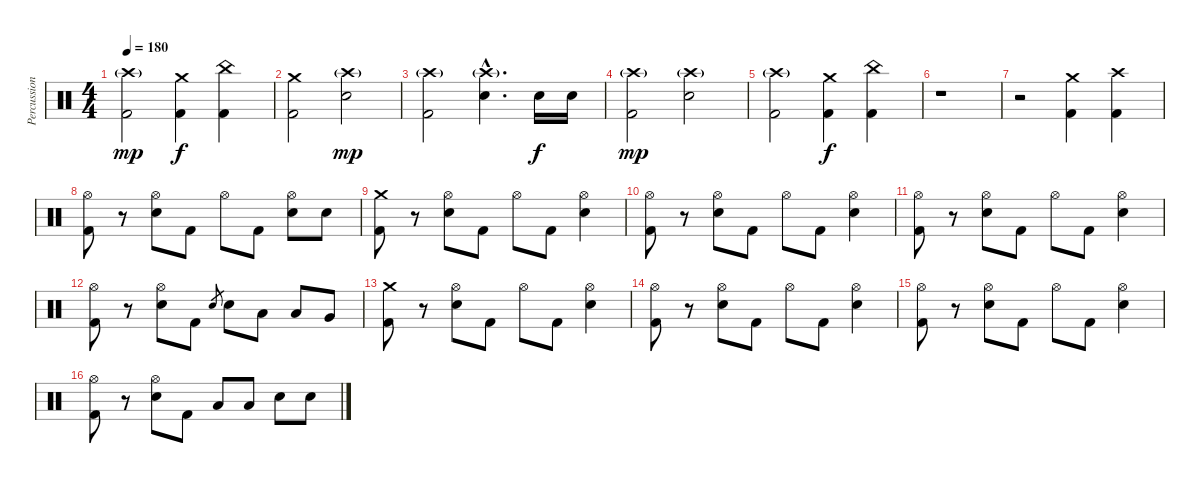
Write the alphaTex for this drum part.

\track ("Percussioni" "Percussion") {instrument percussion}
\staff {score}
\articulation defaults
\ts (4 4)
\tempo 180
\clef neutral
\ks c
("Crash high (hit)"{g} "Kick (hit) 2").2{dy mp} ("Crash medium (hit)" "Kick (hit) 2").4{dy f} ("China (hit)" "Kick (hit) 2").4 |
("Crash medium (hit)" "Kick (hit) 2").2 ("Crash high (hit)"{g} "Electric Snare (hit)").2{dy mp} |
("Crash high (hit)"{g} "Kick (hit) 2").2 ("Crash high (hit)"{g hac} "Electric Snare (hit)"{hac}).4{d} "Electric Snare (hit)".16{dy f} "Electric Snare (hit)".16 |
("Crash high (hit)"{g} "Kick (hit) 2").2{dy mp} ("Crash high (hit)"{g} "Electric Snare (hit)").2 |
("Crash high (hit)"{g} "Kick (hit) 2").2 ("Crash medium (hit)" "Kick (hit) 2").4{dy f} ("China (hit)" "Kick (hit) 2").4 |
r.1 |
r.2 ("Crash medium (hit)" "Kick (hit) 2").4 ("Crash high (hit)" "Kick (hit) 2").4 |
("Hi-Hat (open)" "Kick (hit) 2").8 r.8 ("Hi-Hat (open)" "Electric Snare (hit)").8 "Kick (hit) 2".8 "Hi-Hat (open)".8 "Kick (hit) 2".8 ("Hi-Hat (open)" "Electric Snare (hit)").8 "Electric Snare (hit)".8 |
("Crash medium (hit)" "Kick (hit) 2").8 r.8 ("Hi-Hat (open)" "Electric Snare (hit)").8 "Kick (hit) 2".8 "Hi-Hat (open)".8 "Kick (hit) 2".8 ("Hi-Hat (open)" "Electric Snare (hit)").4 |
("Hi-Hat (open)" "Kick (hit) 2").8 r.8 ("Hi-Hat (open)" "Electric Snare (hit)").8 "Kick (hit) 2".8 "Hi-Hat (open)".8 "Kick (hit) 2".8 ("Hi-Hat (open)" "Electric Snare (hit)").4 |
("Hi-Hat (open)" "Kick (hit) 2").8 r.8 ("Hi-Hat (open)" "Electric Snare (hit)").8 "Kick (hit) 2".8 "Hi-Hat (open)".8 "Kick (hit) 2".8 ("Hi-Hat (open)" "Electric Snare (hit)").4 |
("Hi-Hat (open)" "Kick (hit) 2").8 r.8 ("Hi-Hat (open)" "Electric Snare (hit)").8 "Kick (hit) 2".8 "Electric Snare (hit)".8{gr} "Electric Snare (hit)".8 "Low Tom (hit)".8 "Low Tom (hit)".8 "Very Low Tom (hit)".8 |
("Crash medium (hit)" "Kick (hit) 2").8 r.8 ("Hi-Hat (open)" "Electric Snare (hit)").8 "Kick (hit) 2".8 "Hi-Hat (open)".8 "Kick (hit) 2".8 ("Hi-Hat (open)" "Electric Snare (hit)").4 |
("Hi-Hat (open)" "Kick (hit) 2").8 r.8 ("Hi-Hat (open)" "Electric Snare (hit)").8 "Kick (hit) 2".8 "Hi-Hat (open)".8 "Kick (hit) 2".8 ("Hi-Hat (open)" "Electric Snare (hit)").4 |
("Hi-Hat (open)" "Kick (hit) 2").8 r.8 ("Hi-Hat (open)" "Electric Snare (hit)").8 "Kick (hit) 2".8 "Hi-Hat (open)".8 "Kick (hit) 2".8 ("Hi-Hat (open)" "Electric Snare (hit)").4 |
("Hi-Hat (open)" "Kick (hit) 2").8 r.8 ("Hi-Hat (open)" "Electric Snare (hit)").8 "Kick (hit) 2".8 "Low Tom (hit)".8 "Low Tom (hit)".8 "Electric Snare (hit)".8 "Electric Snare (hit)".8
